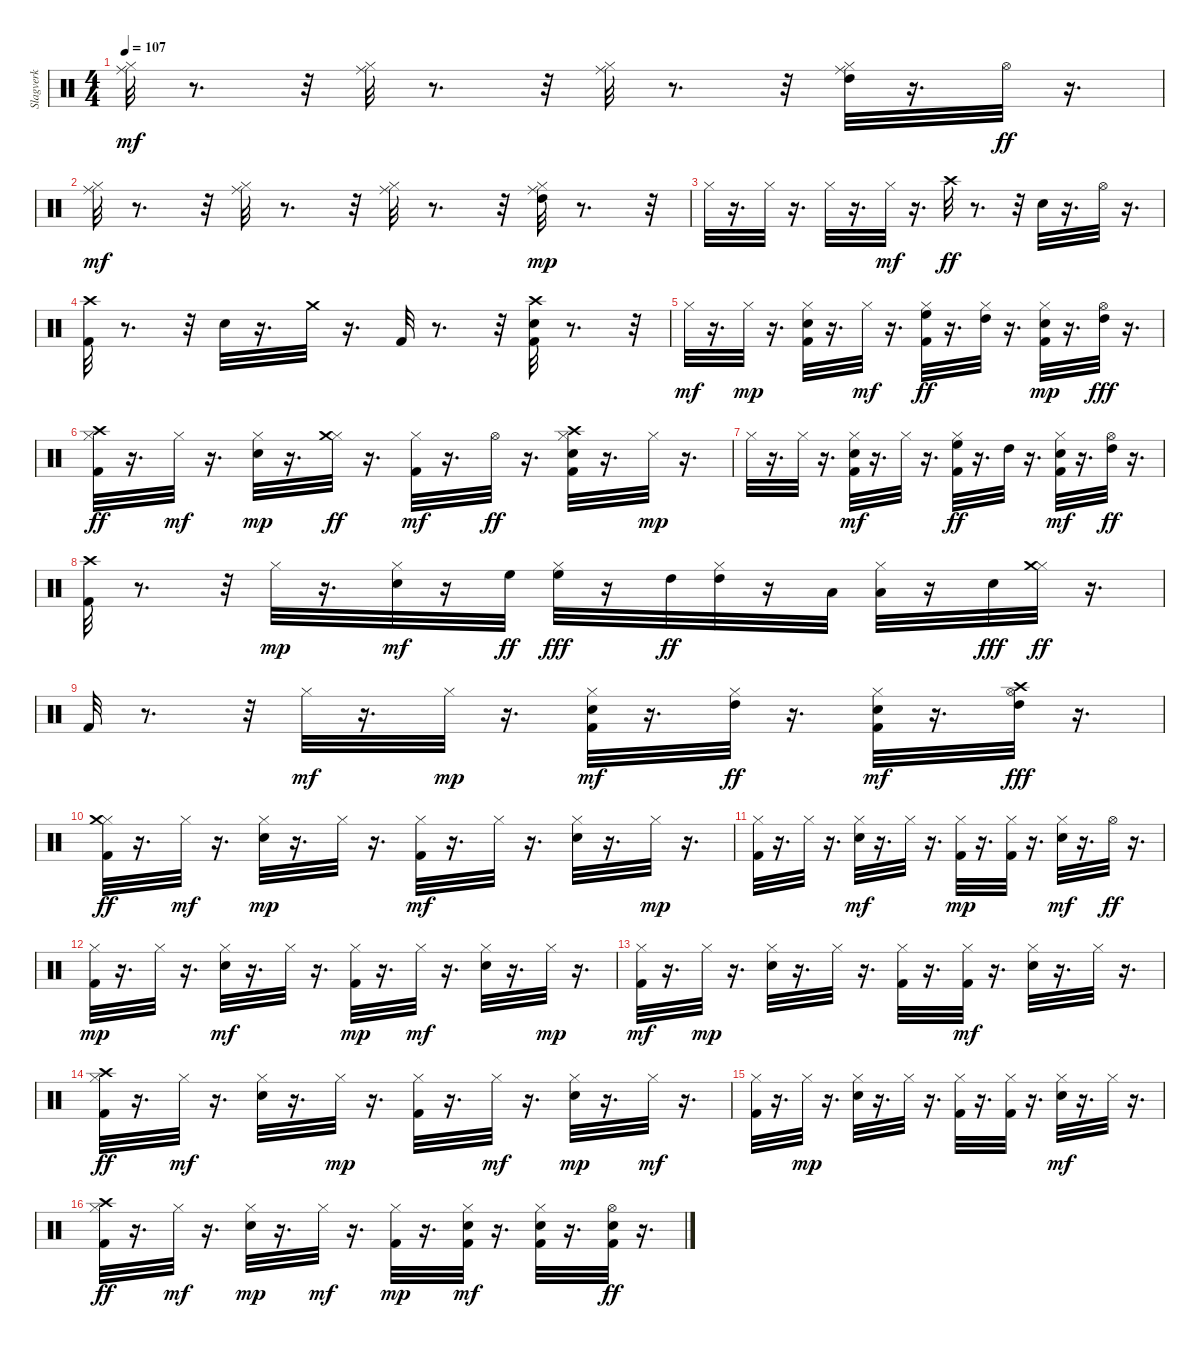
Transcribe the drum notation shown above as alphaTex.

\track ("Slagverk" "Slagverk") {instrument percussion}
\staff {score}
\articulation defaults
\ts (4 4)
\tempo 107
\clef neutral
\ks c
("Hi-Hat (closed)" "Ride (middle)").32{dy mf} r.8{d} r.32 ("Hi-Hat (closed)" "Ride (middle)").32 r.8{d} r.32 ("Hi-Hat (closed)" "Ride (middle)").32 r.8{d} r.32 ("Hi-Hat (closed)" "High Tom (hit)" "Ride (middle)").32 r.16{d} "Hi-Hat (open)".32{dy ff} r.16{d} |
("Hi-Hat (closed)" "Ride (middle)").32{dy mf} r.8{d} r.32 ("Hi-Hat (closed)" "Ride (middle)").32 r.8{d} r.32 ("Hi-Hat (closed)" "Ride (middle)").32 r.8{d} r.32 ("Hi-Hat (closed)" "High Tom (hit)" "Ride (middle)").32{dy mp} r.8{d} r.32 |
"Hi-Hat (closed)".32 r.16{d} "Hi-Hat (closed)".32 r.16{d} "Hi-Hat (closed)".32 r.16{d} "Hi-Hat (closed)".32{dy mf} r.16{d} "Crash high (hit)".32{dy ff} r.8{d} r.32 "Snare (hit) 2".32 r.16{d} "Hi-Hat (open)".32 r.16{d} |
("Kick (hit) 2" "Crash high (hit)").32 r.8{d} r.32 "Snare (hit) 2".32 r.16{d} "Crash medium (hit)".32 r.16{d} "Kick (hit) 2".32 r.8{d} r.32 ("Kick (hit) 2" "Snare (hit) 2" "Crash high (hit)").32 r.8{d} r.32 |
"Hi-Hat (closed)".32{dy mf} r.16{d} "Hi-Hat (closed)".32{dy mp} r.16{d} ("Kick (hit) 2" "Snare (hit) 2" "Hi-Hat (closed)").32 r.16{d} "Hi-Hat (closed)".32{dy mf} r.16{d} ("Kick (hit) 2" "Hi-Hat (closed)" "High Floor Tom (hit)").32{dy ff} r.16{d} ("Hi-Hat (closed)" "High Tom (hit)").32 r.16{d} ("Kick (hit) 2" "Snare (hit) 2" "Hi-Hat (closed)").32{dy mp} r.16{d} ("Hi-Hat (open)" "High Tom (hit)").32{dy fff} r.16{d} |
("Kick (hit) 2" "Hi-Hat (closed)" "Crash high (hit)").32{dy ff} r.16{d} "Hi-Hat (closed)".32{dy mf} r.16{d} ("Snare (hit) 2" "Hi-Hat (closed)").32{dy mp} r.16{d} ("Hi-Hat (closed)" "Crash medium (hit)").32{dy ff} r.16{d} ("Kick (hit) 2" "Hi-Hat (closed)").32{dy mf} r.16{d} "Hi-Hat (open)".32{dy ff} r.16{d} ("Kick (hit) 2" "Snare (hit) 2" "Hi-Hat (closed)" "Crash high (hit)").32 r.16{d} "Hi-Hat (closed)".32{dy mp} r.16{d} |
"Hi-Hat (closed)".32 r.16{d} "Hi-Hat (closed)".32 r.16{d} ("Kick (hit) 2" "Snare (hit) 2" "Hi-Hat (closed)").32{dy mf} r.16{d} "Hi-Hat (closed)".32 r.16{d} ("Kick (hit) 2" "Hi-Hat (closed)" "High Floor Tom (hit)").32{dy ff} r.16{d} "High Tom (hit)".32 r.16{d} ("Kick (hit) 2" "Snare (hit) 2" "Hi-Hat (closed)").32{dy mf} r.16{d} ("Hi-Hat (open)" "High Tom (hit)").32{dy ff} r.16{d} |
("Kick (hit) 2" "Crash high (hit)").32 r.8{d} r.32 "Hi-Hat (closed)".32{dy mp} r.16{d} ("Snare (hit) 2" "Hi-Hat (closed)").32{dy mf} r.16 "High Floor Tom (hit)".32{dy ff} ("Hi-Hat (closed)" "High Floor Tom (hit)").32{dy fff} r.16 "High Tom (hit)".32{dy ff} ("Hi-Hat (closed)" "High Tom (hit)").32 r.16 "Low Tom (hit)".32 ("Hi-Hat (closed)" "Low Tom (hit)").32 r.16 "Snare (hit) 2".32{dy fff} ("Hi-Hat (closed)" "Crash medium (hit)").32{dy ff} r.16{d} |
"Kick (hit) 2".32 r.8{d} r.32 "Hi-Hat (closed)".32{dy mf} r.16{d} "Hi-Hat (closed)".32{dy mp} r.16{d} ("Kick (hit) 2" "Snare (hit) 2" "Hi-Hat (closed)").32{dy mf} r.16{d} ("Hi-Hat (closed)" "High Tom (hit)").32{dy ff} r.16{d} ("Kick (hit) 2" "Snare (hit) 2" "Hi-Hat (closed)").32{dy mf} r.16{d} ("Hi-Hat (open)" "High Tom (hit)" "Crash high (hit)").32{dy fff} r.16{d} |
("Kick (hit) 2" "Hi-Hat (closed)" "Crash medium (hit)").32{dy ff} r.16{d} "Hi-Hat (closed)".32{dy mf} r.16{d} ("Snare (hit) 2" "Hi-Hat (closed)").32{dy mp} r.16{d} "Hi-Hat (closed)".32 r.16{d} ("Kick (hit) 2" "Hi-Hat (closed)").32{dy mf} r.16{d} "Hi-Hat (closed)".32 r.16{d} ("Snare (hit) 2" "Hi-Hat (closed)").32 r.16{d} "Hi-Hat (closed)".32{dy mp} r.16{d} |
("Kick (hit) 2" "Hi-Hat (closed)").32 r.16{d} "Hi-Hat (closed)".32 r.16{d} ("Snare (hit) 2" "Hi-Hat (closed)").32{dy mf} r.16{d} "Hi-Hat (closed)".32 r.16{d} ("Kick (hit) 2" "Hi-Hat (closed)").32{dy mp} r.16{d} ("Kick (hit) 2" "Hi-Hat (closed)").32 r.16{d} ("Snare (hit) 2" "Hi-Hat (closed)").32{dy mf} r.16{d} "Hi-Hat (open)".32{dy ff} r.16{d} |
("Kick (hit) 2" "Hi-Hat (closed)").32{dy mp} r.16{d} "Hi-Hat (closed)".32 r.16{d} ("Snare (hit) 2" "Hi-Hat (closed)").32{dy mf} r.16{d} "Hi-Hat (closed)".32 r.16{d} ("Kick (hit) 2" "Hi-Hat (closed)").32{dy mp} r.16{d} "Hi-Hat (closed)".32{dy mf} r.16{d} ("Snare (hit) 2" "Hi-Hat (closed)").32 r.16{d} "Hi-Hat (closed)".32{dy mp} r.16{d} |
("Kick (hit) 2" "Hi-Hat (closed)").32{dy mf} r.16{d} "Hi-Hat (closed)".32{dy mp} r.16{d} ("Snare (hit) 2" "Hi-Hat (closed)").32 r.16{d} "Hi-Hat (closed)".32 r.16{d} ("Kick (hit) 2" "Hi-Hat (closed)").32 r.16{d} ("Kick (hit) 2" "Hi-Hat (closed)").32{dy mf} r.16{d} ("Snare (hit) 2" "Hi-Hat (closed)").32 r.16{d} "Hi-Hat (closed)".32 r.16{d} |
("Kick (hit) 2" "Hi-Hat (closed)" "Crash high (hit)").32{dy ff} r.16{d} "Hi-Hat (closed)".32{dy mf} r.16{d} ("Snare (hit) 2" "Hi-Hat (closed)").32 r.16{d} "Hi-Hat (closed)".32{dy mp} r.16{d} ("Kick (hit) 2" "Hi-Hat (closed)").32 r.16{d} "Hi-Hat (closed)".32{dy mf} r.16{d} ("Snare (hit) 2" "Hi-Hat (closed)").32{dy mp} r.16{d} "Hi-Hat (closed)".32{dy mf} r.16{d} |
("Kick (hit) 2" "Hi-Hat (closed)").32 r.16{d} "Hi-Hat (closed)".32{dy mp} r.16{d} ("Snare (hit) 2" "Hi-Hat (closed)").32 r.16{d} "Hi-Hat (closed)".32 r.16{d} ("Kick (hit) 2" "Hi-Hat (closed)").32 r.16{d} ("Kick (hit) 2" "Hi-Hat (closed)").32 r.16{d} ("Snare (hit) 2" "Hi-Hat (closed)").32{dy mf} r.16{d} "Hi-Hat (closed)".32 r.16{d} |
("Kick (hit) 2" "Hi-Hat (closed)" "Crash high (hit)").32{dy ff} r.16{d} "Hi-Hat (closed)".32{dy mf} r.16{d} ("Snare (hit) 2" "Hi-Hat (closed)").32{dy mp} r.16{d} "Hi-Hat (closed)".32{dy mf} r.16{d} ("Kick (hit) 2" "Hi-Hat (closed)").32{dy mp} r.16{d} ("Kick (hit) 2" "Snare (hit) 2" "Hi-Hat (closed)").32{dy mf} r.16{d} ("Kick (hit) 2" "Snare (hit) 2" "Hi-Hat (closed)").32 r.16{d} ("Kick (hit) 2" "Snare (hit) 2" "Hi-Hat (open)").32{dy ff} r.16{d}
